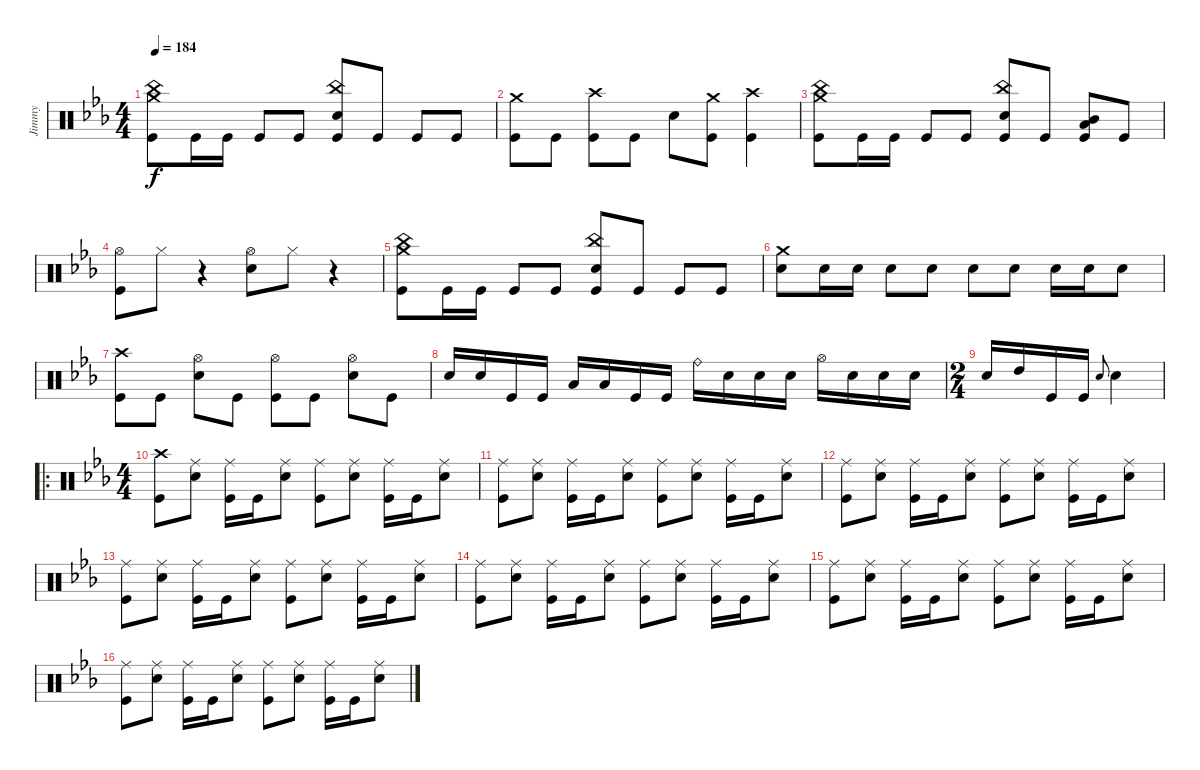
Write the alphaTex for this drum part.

\track ("Jimmy" "Jimmy") {instrument percussion}
\staff {score}
\articulation defaults
\ts (4 4)
\tempo 184
\clef neutral
\ks cminor
("Kick (hit)" "China (hit)" "Crash medium (hit)").8{dy f} "Kick (hit)".16 "Kick (hit)".16 "Kick (hit)".8 "Kick (hit)".8 ("Snare (hit) 2" "China (hit)" "Kick (hit)").8 "Kick (hit)".8 "Kick (hit)".8 "Kick (hit)".8 |
("Kick (hit)" "Crash medium (hit)").8 "Kick (hit)".8 ("Crash high (hit)" "Kick (hit)").8 "Kick (hit)".8 "Snare (hit) 2".8 ("Kick (hit)" "Crash medium (hit)").8 ("Kick (hit)" "Crash high (hit)").4 |
("Kick (hit)" "China (hit)" "Crash medium (hit)").8 "Kick (hit)".16 "Kick (hit)".16 "Kick (hit)".8 "Kick (hit)".8 ("Snare (hit) 2" "China (hit)" "Kick (hit)").8 "Kick (hit)".8 ("Kick (hit)" "Mid Tom (hit)" "Low Tom (hit)").8 "Kick (hit)".8 |
("Kick (hit)" "Hi-Hat (open)").8 "Hi-Hat (closed)".8 r.4 ("Hi-Hat (open)" "Snare (hit) 2").8 "Hi-Hat (closed)".8 r.4 |
("Kick (hit)" "China (hit)" "Crash medium (hit)").8 "Kick (hit)".16 "Kick (hit)".16 "Kick (hit)".8 "Kick (hit)".8 ("Kick (hit)" "China (hit)" "Snare (hit) 2").8 "Kick (hit)".8 "Kick (hit)".8 "Kick (hit)".8 |
("Snare (hit) 2" "Crash medium (hit)").8 "Snare (hit) 2".16 "Snare (hit) 2".16 "Snare (hit) 2".8 "Snare (hit) 2".8 "Snare (hit) 2".8 "Snare (hit) 2".8 "Snare (hit) 2".16 "Snare (hit) 2".16 "Snare (hit) 2".8 |
("Crash high (hit)" "Kick (hit)").8 "Kick (hit)".8 ("Snare (hit) 2" "Hi-Hat (open)").8 "Kick (hit)".8 ("Kick (hit)" "Hi-Hat (open)").8 "Kick (hit)".8 ("Snare (hit) 2" "Hi-Hat (open)").8 "Kick (hit)".8 |
"Snare (hit) 2".16 "Snare (hit) 2".16 "Kick (hit)".16 "Kick (hit)".16 "Low Tom (hit)".16 "Low Tom (hit)".16 "Kick (hit)".16 "Kick (hit)".16 "Ride (bell)".16 "Snare (hit) 2".16 "Snare (hit) 2".16 "Snare (hit) 2".16 "Hi-Hat (open)".16 "Snare (hit) 2".16 "Snare (hit) 2".16 "Snare (hit) 2".16 |
\ts (2 4)
"Snare (hit) 2".16 "High Tom (hit)".16 "Kick (hit)".16 "Kick (hit)".16 "Snare (hit) 2".8{gr onbeat} "Snare (hit) 2".4 |
\ro
\ts (4 4)
("Crash high (hit)" "Kick (hit)").8 ("Snare (hit) 2" "Ride (middle)").8 ("Kick (hit)" "Ride (middle)").16 "Kick (hit)".16 ("Snare (hit) 2" "Ride (middle)").8 ("Kick (hit)" "Ride (middle)").8 ("Snare (hit) 2" "Ride (middle)").8 ("Ride (middle)" "Kick (hit)").16 "Kick (hit)".16 ("Snare (hit) 2" "Ride (middle)").8 |
("Kick (hit)" "Ride (middle)").8 ("Snare (hit) 2" "Ride (middle)").8 ("Ride (middle)" "Kick (hit)").16 "Kick (hit)".16 ("Snare (hit) 2" "Ride (middle)").8 ("Kick (hit)" "Ride (middle)").8 ("Snare (hit) 2" "Ride (middle)").8 ("Ride (middle)" "Kick (hit)").16 "Kick (hit)".16 ("Snare (hit) 2" "Ride (middle)").8 |
("Kick (hit)" "Ride (middle)").8 ("Snare (hit) 2" "Ride (middle)").8 ("Ride (middle)" "Kick (hit)").16 "Kick (hit)".16 ("Snare (hit) 2" "Ride (middle)").8 ("Kick (hit)" "Ride (middle)").8 ("Snare (hit) 2" "Ride (middle)").8 ("Ride (middle)" "Kick (hit)").16 "Kick (hit)".16 ("Snare (hit) 2" "Ride (middle)").8 |
("Kick (hit)" "Ride (middle)").8 ("Snare (hit) 2" "Ride (middle)").8 ("Ride (middle)" "Kick (hit)").16 "Kick (hit)".16 ("Snare (hit) 2" "Ride (middle)").8 ("Kick (hit)" "Ride (middle)").8 ("Snare (hit) 2" "Ride (middle)").8 ("Ride (middle)" "Kick (hit)").16 "Kick (hit)".16 ("Snare (hit) 2" "Ride (middle)").8 |
("Kick (hit)" "Ride (middle)").8 ("Snare (hit) 2" "Ride (middle)").8 ("Ride (middle)" "Kick (hit)").16 "Kick (hit)".16 ("Snare (hit) 2" "Ride (middle)").8 ("Kick (hit)" "Ride (middle)").8 ("Snare (hit) 2" "Ride (middle)").8 ("Ride (middle)" "Kick (hit)").16 "Kick (hit)".16 ("Snare (hit) 2" "Ride (middle)").8 |
("Kick (hit)" "Ride (middle)").8 ("Snare (hit) 2" "Ride (middle)").8 ("Ride (middle)" "Kick (hit)").16 "Kick (hit)".16 ("Snare (hit) 2" "Ride (middle)").8 ("Kick (hit)" "Ride (middle)").8 ("Snare (hit) 2" "Ride (middle)").8 ("Ride (middle)" "Kick (hit)").16 "Kick (hit)".16 ("Snare (hit) 2" "Ride (middle)").8 |
("Kick (hit)" "Ride (middle)").8 ("Snare (hit) 2" "Ride (middle)").8 ("Ride (middle)" "Kick (hit)").16 "Kick (hit)".16 ("Snare (hit) 2" "Ride (middle)").8 ("Kick (hit)" "Ride (middle)").8 ("Snare (hit) 2" "Ride (middle)").8 ("Ride (middle)" "Kick (hit)").16 "Kick (hit)".16 ("Snare (hit) 2" "Ride (middle)").8
